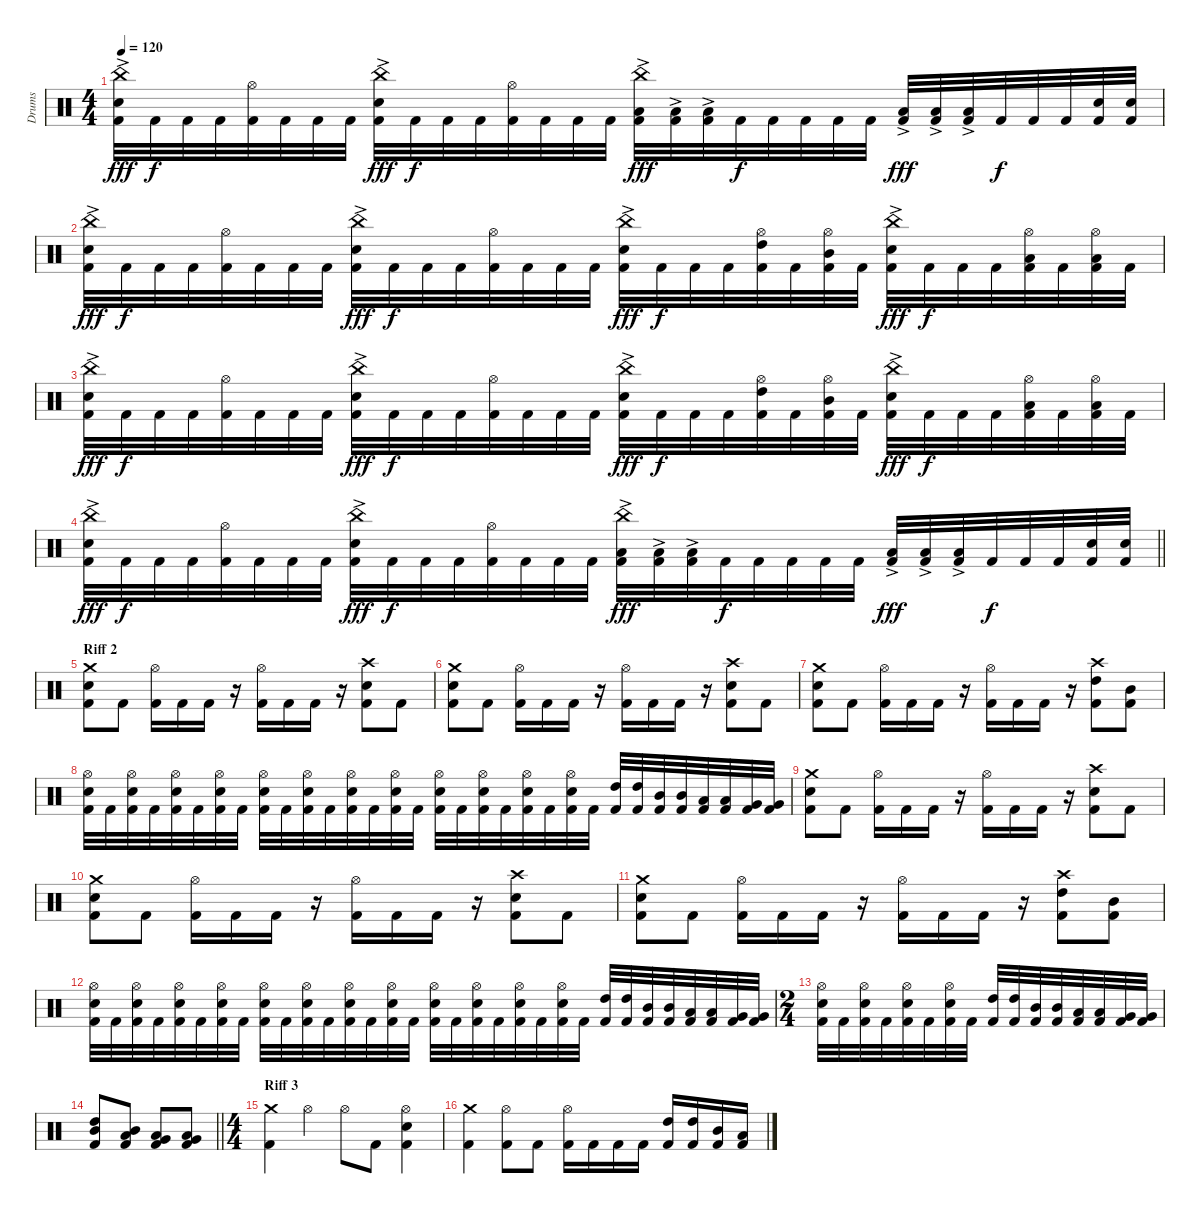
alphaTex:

\track ("Drums" "Drums") {instrument percussion}
\staff {score}
\articulation defaults
\ts (4 4)
\tempo 120
\clef neutral
\ks c
("China (hit)"{ac} "Electric Snare (hit)" "Kick (hit) 2").32{dy fff} "Kick (hit) 2".32{dy f} "Kick (hit) 2".32 "Kick (hit) 2".32 ("Hi-Hat (open)" "Kick (hit) 2").32 "Kick (hit) 2".32 "Kick (hit) 2".32 "Kick (hit) 2".32 ("China (hit)"{ac} "Electric Snare (hit)" "Kick (hit) 2").32{dy fff} "Kick (hit) 2".32{dy f} "Kick (hit) 2".32 "Kick (hit) 2".32 ("Hi-Hat (open)" "Kick (hit) 2").32 "Kick (hit) 2".32 "Kick (hit) 2".32 "Kick (hit) 2".32 ("China (hit)"{ac} "Low Tom (hit)"{ac} "Kick (hit) 2").32{dy fff} ("Low Tom (hit)"{ac} "Kick (hit) 2").32 ("Low Tom (hit)"{ac} "Kick (hit) 2").32 "Kick (hit) 2".32{dy f} "Kick (hit) 2".32 "Kick (hit) 2".32 "Kick (hit) 2".32 "Kick (hit) 2".32 ("Low Tom (hit)"{ac} "Kick (hit) 2").32{dy fff} ("Low Tom (hit)"{ac} "Kick (hit) 2").32 ("Low Tom (hit)"{ac} "Kick (hit) 2").32 "Kick (hit) 2".32{dy f} "Kick (hit) 2".32 "Kick (hit) 2".32 ("Electric Snare (hit)" "Kick (hit) 2").32 ("Electric Snare (hit)" "Kick (hit) 2").32 |
("China (hit)"{ac} "Electric Snare (hit)" "Kick (hit) 2").32{dy fff} "Kick (hit) 2".32{dy f} "Kick (hit) 2".32 "Kick (hit) 2".32 ("Hi-Hat (open)" "Kick (hit) 2").32 "Kick (hit) 2".32 "Kick (hit) 2".32 "Kick (hit) 2".32 ("China (hit)"{ac} "Electric Snare (hit)" "Kick (hit) 2").32{dy fff} "Kick (hit) 2".32{dy f} "Kick (hit) 2".32 "Kick (hit) 2".32 ("Hi-Hat (open)" "Kick (hit) 2").32 "Kick (hit) 2".32 "Kick (hit) 2".32 "Kick (hit) 2".32 ("China (hit)"{ac} "Electric Snare (hit)" "Kick (hit) 2").32{dy fff} "Kick (hit) 2".32{dy f} "Kick (hit) 2".32 "Kick (hit) 2".32 ("Hi-Hat (open)" "High Tom (hit)" "Kick (hit) 2").32 "Kick (hit) 2".32 ("Hi-Hat (open)" "Mid Tom (hit)" "Kick (hit) 2").32 "Kick (hit) 2".32 ("China (hit)"{ac} "Electric Snare (hit)" "Kick (hit) 2").32{dy fff} "Kick (hit) 2".32{dy f} "Kick (hit) 2".32 "Kick (hit) 2".32 ("Hi-Hat (open)" "Low Tom (hit)" "Kick (hit) 2").32 "Kick (hit) 2".32 ("Hi-Hat (open)" "Low Tom (hit)" "Kick (hit) 2").32 "Kick (hit) 2".32 |
("China (hit)"{ac} "Electric Snare (hit)" "Kick (hit) 2").32{dy fff} "Kick (hit) 2".32{dy f} "Kick (hit) 2".32 "Kick (hit) 2".32 ("Hi-Hat (open)" "Kick (hit) 2").32 "Kick (hit) 2".32 "Kick (hit) 2".32 "Kick (hit) 2".32 ("China (hit)"{ac} "Electric Snare (hit)" "Kick (hit) 2").32{dy fff} "Kick (hit) 2".32{dy f} "Kick (hit) 2".32 "Kick (hit) 2".32 ("Hi-Hat (open)" "Kick (hit) 2").32 "Kick (hit) 2".32 "Kick (hit) 2".32 "Kick (hit) 2".32 ("China (hit)"{ac} "Electric Snare (hit)" "Kick (hit) 2").32{dy fff} "Kick (hit) 2".32{dy f} "Kick (hit) 2".32 "Kick (hit) 2".32 ("Hi-Hat (open)" "High Tom (hit)" "Kick (hit) 2").32 "Kick (hit) 2".32 ("Hi-Hat (open)" "Mid Tom (hit)" "Kick (hit) 2").32 "Kick (hit) 2".32 ("China (hit)"{ac} "Electric Snare (hit)" "Kick (hit) 2").32{dy fff} "Kick (hit) 2".32{dy f} "Kick (hit) 2".32 "Kick (hit) 2".32 ("Hi-Hat (open)" "Low Tom (hit)" "Kick (hit) 2").32 "Kick (hit) 2".32 ("Hi-Hat (open)" "Low Tom (hit)" "Kick (hit) 2").32 "Kick (hit) 2".32 |
\barLineRight lightlight
("China (hit)"{ac} "Electric Snare (hit)" "Kick (hit) 2").32{dy fff} "Kick (hit) 2".32{dy f} "Kick (hit) 2".32 "Kick (hit) 2".32 ("Hi-Hat (open)" "Kick (hit) 2").32 "Kick (hit) 2".32 "Kick (hit) 2".32 "Kick (hit) 2".32 ("China (hit)"{ac} "Electric Snare (hit)" "Kick (hit) 2").32{dy fff} "Kick (hit) 2".32{dy f} "Kick (hit) 2".32 "Kick (hit) 2".32 ("Hi-Hat (open)" "Kick (hit) 2").32 "Kick (hit) 2".32 "Kick (hit) 2".32 "Kick (hit) 2".32 ("China (hit)"{ac} "Low Tom (hit)"{ac} "Kick (hit) 2").32{dy fff} ("Low Tom (hit)"{ac} "Kick (hit) 2").32 ("Low Tom (hit)"{ac} "Kick (hit) 2").32 "Kick (hit) 2".32{dy f} "Kick (hit) 2".32 "Kick (hit) 2".32 "Kick (hit) 2".32 "Kick (hit) 2".32 ("Low Tom (hit)"{ac} "Kick (hit) 2").32{dy fff} ("Low Tom (hit)"{ac} "Kick (hit) 2").32 ("Low Tom (hit)"{ac} "Kick (hit) 2").32 "Kick (hit) 2".32{dy f} "Kick (hit) 2".32 "Kick (hit) 2".32 ("Electric Snare (hit)" "Kick (hit) 2").32 ("Electric Snare (hit)" "Kick (hit) 2").32 |
\section ("" "Riff 2")
("Crash medium (hit)" "Electric Snare (hit)" "Kick (hit) 2").8 "Kick (hit) 2".8 ("Hi-Hat (open)" "Kick (hit) 2").16 "Kick (hit) 2".16 "Kick (hit) 2".16 r.16 ("Hi-Hat (open)" "Kick (hit) 2").16 "Kick (hit) 2".16 "Kick (hit) 2".16 r.16 ("Crash high (hit)" "Electric Snare (hit)" "Kick (hit) 2").8 "Kick (hit) 2".8 |
("Crash medium (hit)" "Electric Snare (hit)" "Kick (hit) 2").8 "Kick (hit) 2".8 ("Hi-Hat (open)" "Kick (hit) 2").16 "Kick (hit) 2".16 "Kick (hit) 2".16 r.16 ("Hi-Hat (open)" "Kick (hit) 2").16 "Kick (hit) 2".16 "Kick (hit) 2".16 r.16 ("Crash high (hit)" "Electric Snare (hit)" "Kick (hit) 2").8 "Kick (hit) 2".8 |
("Crash medium (hit)" "Electric Snare (hit)" "Kick (hit) 2").8 "Kick (hit) 2".8 ("Hi-Hat (open)" "Kick (hit) 2").16 "Kick (hit) 2".16 "Kick (hit) 2".16 r.16 ("Hi-Hat (open)" "Kick (hit) 2").16 "Kick (hit) 2".16 "Kick (hit) 2".16 r.16 ("Crash high (hit)" "High Tom (hit)" "Kick (hit) 2").8 ("Mid Tom (hit)" "Kick (hit) 2").8 |
("Hi-Hat (open)" "Electric Snare (hit)" "Kick (hit) 2").32 "Kick (hit) 2".32 ("Hi-Hat (open)" "Electric Snare (hit)" "Kick (hit) 2").32 "Kick (hit) 2".32 ("Hi-Hat (open)" "Electric Snare (hit)" "Kick (hit) 2").32 "Kick (hit) 2".32 ("Hi-Hat (open)" "Electric Snare (hit)" "Kick (hit) 2").32 "Kick (hit) 2".32 ("Hi-Hat (open)" "Electric Snare (hit)" "Kick (hit) 2").32 "Kick (hit) 2".32 ("Hi-Hat (open)" "Electric Snare (hit)" "Kick (hit) 2").32 "Kick (hit) 2".32 ("Hi-Hat (open)" "Electric Snare (hit)" "Kick (hit) 2").32 "Kick (hit) 2".32 ("Hi-Hat (open)" "Electric Snare (hit)" "Kick (hit) 2").32 "Kick (hit) 2".32 ("Hi-Hat (open)" "Electric Snare (hit)" "Kick (hit) 2").32 "Kick (hit) 2".32 ("Hi-Hat (open)" "Electric Snare (hit)" "Kick (hit) 2").32 "Kick (hit) 2".32 ("Hi-Hat (open)" "Electric Snare (hit)" "Kick (hit) 2").32 "Kick (hit) 2".32 ("Hi-Hat (open)" "Electric Snare (hit)" "Kick (hit) 2").32 "Kick (hit) 2".32 ("High Tom (hit)" "Kick (hit) 2").32 ("High Tom (hit)" "Kick (hit) 2").32 ("Mid Tom (hit)" "Kick (hit) 2").32 ("Mid Tom (hit)" "Kick (hit) 2").32 ("Low Tom (hit)" "Kick (hit) 2").32 ("Low Tom (hit)" "Kick (hit) 2").32 ("Very Low Tom (hit)" "Kick (hit) 2").32 ("Very Low Tom (hit)" "Kick (hit) 2").32 |
("Crash medium (hit)" "Electric Snare (hit)" "Kick (hit) 2").8 "Kick (hit) 2".8 ("Hi-Hat (open)" "Kick (hit) 2").16 "Kick (hit) 2".16 "Kick (hit) 2".16 r.16 ("Hi-Hat (open)" "Kick (hit) 2").16 "Kick (hit) 2".16 "Kick (hit) 2".16 r.16 ("Crash high (hit)" "Electric Snare (hit)" "Kick (hit) 2").8 "Kick (hit) 2".8 |
("Crash medium (hit)" "Electric Snare (hit)" "Kick (hit) 2").8 "Kick (hit) 2".8 ("Hi-Hat (open)" "Kick (hit) 2").16 "Kick (hit) 2".16 "Kick (hit) 2".16 r.16 ("Hi-Hat (open)" "Kick (hit) 2").16 "Kick (hit) 2".16 "Kick (hit) 2".16 r.16 ("Crash high (hit)" "Electric Snare (hit)" "Kick (hit) 2").8 "Kick (hit) 2".8 |
("Crash medium (hit)" "Electric Snare (hit)" "Kick (hit) 2").8 "Kick (hit) 2".8 ("Hi-Hat (open)" "Kick (hit) 2").16 "Kick (hit) 2".16 "Kick (hit) 2".16 r.16 ("Hi-Hat (open)" "Kick (hit) 2").16 "Kick (hit) 2".16 "Kick (hit) 2".16 r.16 ("Crash high (hit)" "High Tom (hit)" "Kick (hit) 2").8 ("Mid Tom (hit)" "Kick (hit) 2").8 |
("Hi-Hat (open)" "Electric Snare (hit)" "Kick (hit) 2").32 "Kick (hit) 2".32 ("Hi-Hat (open)" "Electric Snare (hit)" "Kick (hit) 2").32 "Kick (hit) 2".32 ("Hi-Hat (open)" "Electric Snare (hit)" "Kick (hit) 2").32 "Kick (hit) 2".32 ("Hi-Hat (open)" "Electric Snare (hit)" "Kick (hit) 2").32 "Kick (hit) 2".32 ("Hi-Hat (open)" "Electric Snare (hit)" "Kick (hit) 2").32 "Kick (hit) 2".32 ("Hi-Hat (open)" "Electric Snare (hit)" "Kick (hit) 2").32 "Kick (hit) 2".32 ("Hi-Hat (open)" "Electric Snare (hit)" "Kick (hit) 2").32 "Kick (hit) 2".32 ("Hi-Hat (open)" "Electric Snare (hit)" "Kick (hit) 2").32 "Kick (hit) 2".32 ("Hi-Hat (open)" "Electric Snare (hit)" "Kick (hit) 2").32 "Kick (hit) 2".32 ("Hi-Hat (open)" "Electric Snare (hit)" "Kick (hit) 2").32 "Kick (hit) 2".32 ("Hi-Hat (open)" "Electric Snare (hit)" "Kick (hit) 2").32 "Kick (hit) 2".32 ("Hi-Hat (open)" "Electric Snare (hit)" "Kick (hit) 2").32 "Kick (hit) 2".32 ("High Tom (hit)" "Kick (hit) 2").32 ("High Tom (hit)" "Kick (hit) 2").32 ("Mid Tom (hit)" "Kick (hit) 2").32 ("Mid Tom (hit)" "Kick (hit) 2").32 ("Low Tom (hit)" "Kick (hit) 2").32 ("Low Tom (hit)" "Kick (hit) 2").32 ("Very Low Tom (hit)" "Kick (hit) 2").32 ("Very Low Tom (hit)" "Kick (hit) 2").32 |
\ts (2 4)
("Hi-Hat (open)" "Electric Snare (hit)" "Kick (hit) 2").32 "Kick (hit) 2".32 ("Hi-Hat (open)" "Electric Snare (hit)" "Kick (hit) 2").32 "Kick (hit) 2".32 ("Hi-Hat (open)" "Electric Snare (hit)" "Kick (hit) 2").32 "Kick (hit) 2".32 ("Hi-Hat (open)" "Electric Snare (hit)" "Kick (hit) 2").32 "Kick (hit) 2".32 ("High Tom (hit)" "Kick (hit) 2").32 ("High Tom (hit)" "Kick (hit) 2").32 ("Mid Tom (hit)" "Kick (hit) 2").32 ("Mid Tom (hit)" "Kick (hit) 2").32 ("Low Tom (hit)" "Kick (hit) 2").32 ("Low Tom (hit)" "Kick (hit) 2").32 ("Very Low Tom (hit)" "Kick (hit) 2").32 ("Very Low Tom (hit)" "Kick (hit) 2").32 |
\barLineRight lightlight
("Mid Tom (hit)" "High Tom (hit)" "Kick (hit) 2").8 ("Low Tom (hit)" "Mid Tom (hit)" "Kick (hit) 2").8 ("Very Low Tom (hit)" "Low Tom (hit)" "Kick (hit) 2").8 ("Low Floor Tom (hit)" "Very Low Tom (hit)" "Kick (hit) 2").8 |
\ts (4 4)
\section ("" "Riff 3")
("Crash medium (hit)" "Kick (hit) 2").4 "Hi-Hat (open)".4 "Hi-Hat (open)".8 "Kick (hit) 2".8 ("Hi-Hat (open)" "Electric Snare (hit)" "Kick (hit) 2").4 |
("Crash medium (hit)" "Kick (hit) 2").4 ("Hi-Hat (open)" "Kick (hit) 2").8 "Kick (hit) 2".8 ("Hi-Hat (open)" "Kick (hit) 2").16 "Kick (hit) 2".16 "Kick (hit) 2".16 "Kick (hit) 2".16 ("High Tom (hit)" "Kick (hit) 2").16 ("High Tom (hit)" "Kick (hit) 2").16 ("Mid Tom (hit)" "Kick (hit) 2").16 ("Low Tom (hit)" "Kick (hit) 2").16
